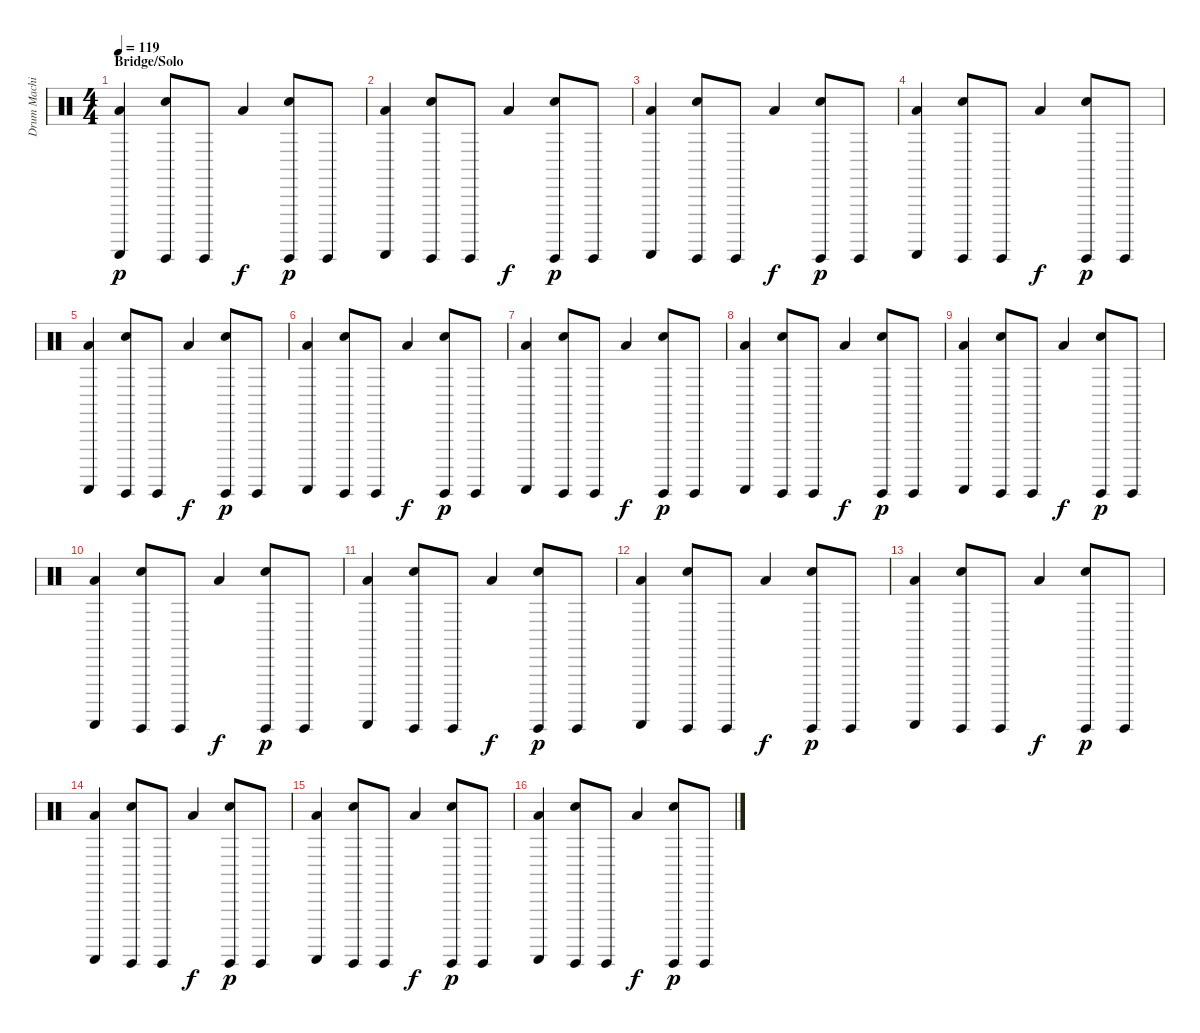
\track ("Drum Machine" "Drum Machi") {instrument percussion}
\staff {score}
\articulation defaults
\ts (4 4)
\section ("" "Bridge/Solo")
\tempo 119
\clef neutral
\ks c
("Low Floor Tom (hit)" "Guiro (scrap-return)").4{dy p} ("Snare (hit) 2" "Guiro (hit)").8 "Guiro (hit)".8 "Low Floor Tom (hit)".4{dy f} ("Snare (hit) 2" "Guiro (hit)").8{dy p} "Guiro (hit)".8 |
("Low Floor Tom (hit)" "Guiro (scrap-return)").4 ("Snare (hit) 2" "Guiro (hit)").8 "Guiro (hit)".8 "Low Floor Tom (hit)".4{dy f} ("Snare (hit) 2" "Guiro (hit)").8{dy p} "Guiro (hit)".8 |
("Low Floor Tom (hit)" "Guiro (scrap-return)").4 ("Snare (hit) 2" "Guiro (hit)").8 "Guiro (hit)".8 "Low Floor Tom (hit)".4{dy f} ("Snare (hit) 2" "Guiro (hit)").8{dy p} "Guiro (hit)".8 |
("Low Floor Tom (hit)" "Guiro (scrap-return)").4 ("Snare (hit) 2" "Guiro (hit)").8 "Guiro (hit)".8 "Low Floor Tom (hit)".4{dy f} ("Snare (hit) 2" "Guiro (hit)").8{dy p} "Guiro (hit)".8 |
("Low Floor Tom (hit)" "Guiro (scrap-return)").4 ("Snare (hit) 2" "Guiro (hit)").8 "Guiro (hit)".8 "Low Floor Tom (hit)".4{dy f} ("Snare (hit) 2" "Guiro (hit)").8{dy p} "Guiro (hit)".8 |
("Low Floor Tom (hit)" "Guiro (scrap-return)").4 ("Snare (hit) 2" "Guiro (hit)").8 "Guiro (hit)".8 "Low Floor Tom (hit)".4{dy f} ("Snare (hit) 2" "Guiro (hit)").8{dy p} "Guiro (hit)".8 |
("Low Floor Tom (hit)" "Guiro (scrap-return)").4 ("Snare (hit) 2" "Guiro (hit)").8 "Guiro (hit)".8 "Low Floor Tom (hit)".4{dy f} ("Snare (hit) 2" "Guiro (hit)").8{dy p} "Guiro (hit)".8 |
("Low Floor Tom (hit)" "Guiro (scrap-return)").4 ("Snare (hit) 2" "Guiro (hit)").8 "Guiro (hit)".8 "Low Floor Tom (hit)".4{dy f} ("Snare (hit) 2" "Guiro (hit)").8{dy p} "Guiro (hit)".8 |
("Low Floor Tom (hit)" "Guiro (scrap-return)").4 ("Snare (hit) 2" "Guiro (hit)").8 "Guiro (hit)".8 "Low Floor Tom (hit)".4{dy f} ("Snare (hit) 2" "Guiro (hit)").8{dy p} "Guiro (hit)".8 |
("Low Floor Tom (hit)" "Guiro (scrap-return)").4 ("Snare (hit) 2" "Guiro (hit)").8 "Guiro (hit)".8 "Low Floor Tom (hit)".4{dy f} ("Snare (hit) 2" "Guiro (hit)").8{dy p} "Guiro (hit)".8 |
("Low Floor Tom (hit)" "Guiro (scrap-return)").4 ("Snare (hit) 2" "Guiro (hit)").8 "Guiro (hit)".8 "Low Floor Tom (hit)".4{dy f} ("Snare (hit) 2" "Guiro (hit)").8{dy p} "Guiro (hit)".8 |
("Low Floor Tom (hit)" "Guiro (scrap-return)").4 ("Snare (hit) 2" "Guiro (hit)").8 "Guiro (hit)".8 "Low Floor Tom (hit)".4{dy f} ("Snare (hit) 2" "Guiro (hit)").8{dy p} "Guiro (hit)".8 |
("Low Floor Tom (hit)" "Guiro (scrap-return)").4 ("Snare (hit) 2" "Guiro (hit)").8 "Guiro (hit)".8 "Low Floor Tom (hit)".4{dy f} ("Snare (hit) 2" "Guiro (hit)").8{dy p} "Guiro (hit)".8 |
("Low Floor Tom (hit)" "Guiro (scrap-return)").4 ("Snare (hit) 2" "Guiro (hit)").8 "Guiro (hit)".8 "Low Floor Tom (hit)".4{dy f} ("Snare (hit) 2" "Guiro (hit)").8{dy p} "Guiro (hit)".8 |
("Low Floor Tom (hit)" "Guiro (scrap-return)").4 ("Snare (hit) 2" "Guiro (hit)").8 "Guiro (hit)".8 "Low Floor Tom (hit)".4{dy f} ("Snare (hit) 2" "Guiro (hit)").8{dy p} "Guiro (hit)".8 |
("Low Floor Tom (hit)" "Guiro (scrap-return)").4 ("Snare (hit) 2" "Guiro (hit)").8 "Guiro (hit)".8 "Low Floor Tom (hit)".4{dy f} ("Snare (hit) 2" "Guiro (hit)").8{dy p} "Guiro (hit)".8
